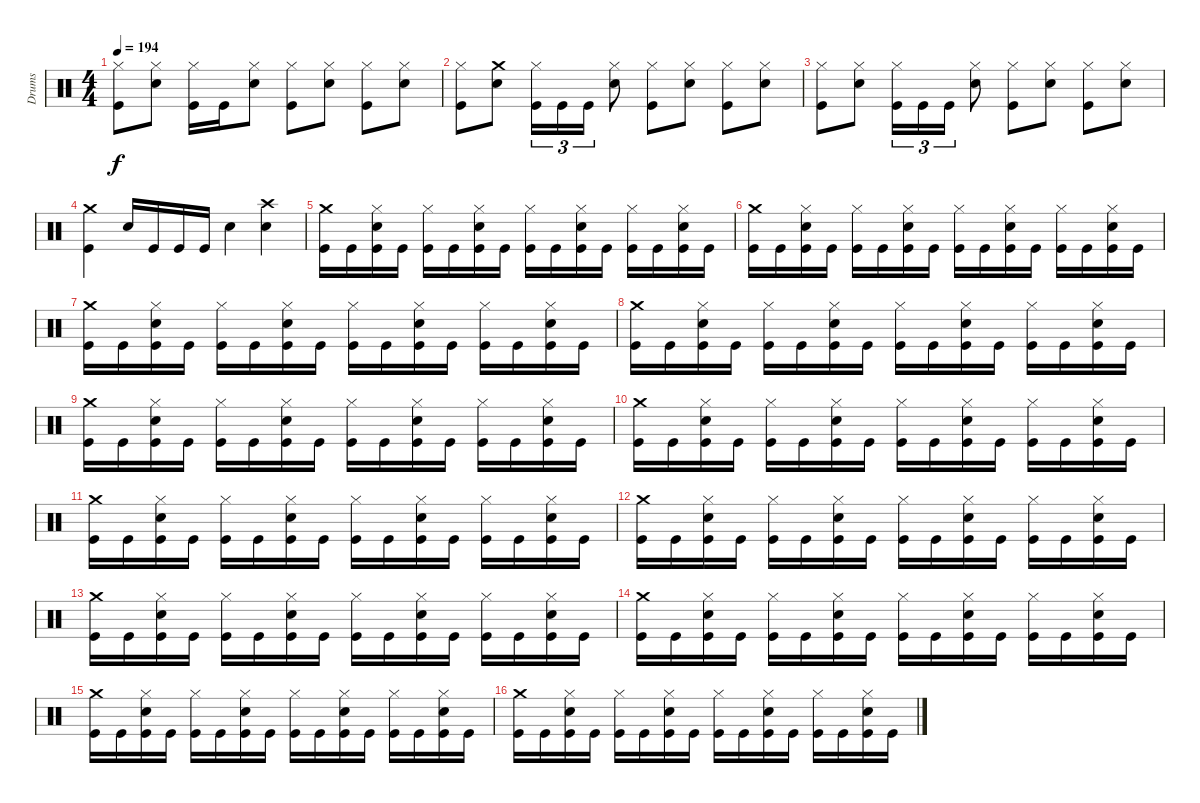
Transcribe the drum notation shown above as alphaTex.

\track ("Drums" "Drums") {instrument percussion}
\staff {score}
\articulation defaults
\ts (4 4)
\tempo 194
\clef neutral
\ks c
("Hi-Hat (closed)" "Kick (hit)").8{dy f} ("Hi-Hat (closed)" "Snare (hit) 2").8 ("Hi-Hat (closed)" "Kick (hit)").16 "Kick (hit)".16 ("Hi-Hat (closed)" "Snare (hit) 2").8 ("Hi-Hat (closed)" "Kick (hit)").8 ("Hi-Hat (closed)" "Snare (hit) 2").8 ("Hi-Hat (closed)" "Kick (hit)").8 ("Hi-Hat (closed)" "Snare (hit) 2").8 |
("Hi-Hat (closed)" "Kick (hit)").8 ("Crash medium (hit)" "Snare (hit) 2").8 ("Hi-Hat (closed)" "Kick (hit)").16{tu (3 2)} "Kick (hit)".16{tu (3 2)} "Kick (hit)".16{tu (3 2)} ("Hi-Hat (closed)" "Snare (hit) 2").8 ("Hi-Hat (closed)" "Kick (hit)").8 ("Hi-Hat (closed)" "Snare (hit) 2").8 ("Hi-Hat (closed)" "Kick (hit)").8 ("Hi-Hat (closed)" "Snare (hit) 2").8 |
("Hi-Hat (closed)" "Kick (hit)").8 ("Hi-Hat (closed)" "Snare (hit) 2").8 ("Hi-Hat (closed)" "Kick (hit)").16{tu (3 2)} "Kick (hit)".16{tu (3 2)} "Kick (hit)".16{tu (3 2)} ("Hi-Hat (closed)" "Snare (hit) 2").8 ("Hi-Hat (closed)" "Kick (hit)").8 ("Hi-Hat (closed)" "Snare (hit) 2").8 ("Hi-Hat (closed)" "Kick (hit)").8 ("Hi-Hat (closed)" "Snare (hit) 2").8 |
("Crash medium (hit)" "Kick (hit)").4 "Snare (hit) 2".16 "Kick (hit)".16 "Kick (hit)".16 "Kick (hit)".16 "Snare (hit) 2".4 ("Crash high (hit)" "Snare (hit) 2").4 |
("Crash medium (hit)" "Kick (hit)").16 "Kick (hit)".16 ("Hi-Hat (closed)" "Snare (hit) 2" "Kick (hit)").16 "Kick (hit)".16 ("Hi-Hat (closed)" "Kick (hit)").16 "Kick (hit)".16 ("Hi-Hat (closed)" "Snare (hit) 2" "Kick (hit)").16 "Kick (hit)".16 ("Hi-Hat (closed)" "Kick (hit)").16 "Kick (hit)".16 ("Hi-Hat (closed)" "Snare (hit) 2" "Kick (hit)").16 "Kick (hit)".16 ("Hi-Hat (closed)" "Kick (hit)").16 "Kick (hit)".16 ("Hi-Hat (closed)" "Snare (hit) 2" "Kick (hit)").16 "Kick (hit)".16 |
("Crash medium (hit)" "Kick (hit)").16 "Kick (hit)".16 ("Hi-Hat (closed)" "Snare (hit) 2" "Kick (hit)").16 "Kick (hit)".16 ("Hi-Hat (closed)" "Kick (hit)").16 "Kick (hit)".16 ("Hi-Hat (closed)" "Snare (hit) 2" "Kick (hit)").16 "Kick (hit)".16 ("Hi-Hat (closed)" "Kick (hit)").16 "Kick (hit)".16 ("Hi-Hat (closed)" "Snare (hit) 2" "Kick (hit)").16 "Kick (hit)".16 ("Hi-Hat (closed)" "Kick (hit)").16 "Kick (hit)".16 ("Hi-Hat (closed)" "Snare (hit) 2" "Kick (hit)").16 "Kick (hit)".16 |
("Crash medium (hit)" "Kick (hit)").16 "Kick (hit)".16 ("Hi-Hat (closed)" "Snare (hit) 2" "Kick (hit)").16 "Kick (hit)".16 ("Hi-Hat (closed)" "Kick (hit)").16 "Kick (hit)".16 ("Hi-Hat (closed)" "Snare (hit) 2" "Kick (hit)").16 "Kick (hit)".16 ("Hi-Hat (closed)" "Kick (hit)").16 "Kick (hit)".16 ("Hi-Hat (closed)" "Snare (hit) 2" "Kick (hit)").16 "Kick (hit)".16 ("Hi-Hat (closed)" "Kick (hit)").16 "Kick (hit)".16 ("Hi-Hat (closed)" "Snare (hit) 2" "Kick (hit)").16 "Kick (hit)".16 |
("Crash medium (hit)" "Kick (hit)").16 "Kick (hit)".16 ("Hi-Hat (closed)" "Snare (hit) 2" "Kick (hit)").16 "Kick (hit)".16 ("Hi-Hat (closed)" "Kick (hit)").16 "Kick (hit)".16 ("Hi-Hat (closed)" "Snare (hit) 2" "Kick (hit)").16 "Kick (hit)".16 ("Hi-Hat (closed)" "Kick (hit)").16 "Kick (hit)".16 ("Hi-Hat (closed)" "Snare (hit) 2" "Kick (hit)").16 "Kick (hit)".16 ("Hi-Hat (closed)" "Kick (hit)").16 "Kick (hit)".16 ("Hi-Hat (closed)" "Snare (hit) 2" "Kick (hit)").16 "Kick (hit)".16 |
("Crash medium (hit)" "Kick (hit)").16 "Kick (hit)".16 ("Hi-Hat (closed)" "Snare (hit) 2" "Kick (hit)").16 "Kick (hit)".16 ("Hi-Hat (closed)" "Kick (hit)").16 "Kick (hit)".16 ("Hi-Hat (closed)" "Snare (hit) 2" "Kick (hit)").16 "Kick (hit)".16 ("Hi-Hat (closed)" "Kick (hit)").16 "Kick (hit)".16 ("Hi-Hat (closed)" "Snare (hit) 2" "Kick (hit)").16 "Kick (hit)".16 ("Hi-Hat (closed)" "Kick (hit)").16 "Kick (hit)".16 ("Hi-Hat (closed)" "Snare (hit) 2" "Kick (hit)").16 "Kick (hit)".16 |
("Crash medium (hit)" "Kick (hit)").16 "Kick (hit)".16 ("Hi-Hat (closed)" "Snare (hit) 2" "Kick (hit)").16 "Kick (hit)".16 ("Hi-Hat (closed)" "Kick (hit)").16 "Kick (hit)".16 ("Hi-Hat (closed)" "Snare (hit) 2" "Kick (hit)").16 "Kick (hit)".16 ("Hi-Hat (closed)" "Kick (hit)").16 "Kick (hit)".16 ("Hi-Hat (closed)" "Snare (hit) 2" "Kick (hit)").16 "Kick (hit)".16 ("Hi-Hat (closed)" "Kick (hit)").16 "Kick (hit)".16 ("Hi-Hat (closed)" "Snare (hit) 2" "Kick (hit)").16 "Kick (hit)".16 |
("Crash medium (hit)" "Kick (hit)").16 "Kick (hit)".16 ("Hi-Hat (closed)" "Snare (hit) 2" "Kick (hit)").16 "Kick (hit)".16 ("Hi-Hat (closed)" "Kick (hit)").16 "Kick (hit)".16 ("Hi-Hat (closed)" "Snare (hit) 2" "Kick (hit)").16 "Kick (hit)".16 ("Hi-Hat (closed)" "Kick (hit)").16 "Kick (hit)".16 ("Hi-Hat (closed)" "Snare (hit) 2" "Kick (hit)").16 "Kick (hit)".16 ("Hi-Hat (closed)" "Kick (hit)").16 "Kick (hit)".16 ("Hi-Hat (closed)" "Snare (hit) 2" "Kick (hit)").16 "Kick (hit)".16 |
("Crash medium (hit)" "Kick (hit)").16 "Kick (hit)".16 ("Hi-Hat (closed)" "Snare (hit) 2" "Kick (hit)").16 "Kick (hit)".16 ("Hi-Hat (closed)" "Kick (hit)").16 "Kick (hit)".16 ("Hi-Hat (closed)" "Snare (hit) 2" "Kick (hit)").16 "Kick (hit)".16 ("Hi-Hat (closed)" "Kick (hit)").16 "Kick (hit)".16 ("Hi-Hat (closed)" "Snare (hit) 2" "Kick (hit)").16 "Kick (hit)".16 ("Hi-Hat (closed)" "Kick (hit)").16 "Kick (hit)".16 ("Hi-Hat (closed)" "Snare (hit) 2" "Kick (hit)").16 "Kick (hit)".16 |
("Crash medium (hit)" "Kick (hit)").16 "Kick (hit)".16 ("Hi-Hat (closed)" "Snare (hit) 2" "Kick (hit)").16 "Kick (hit)".16 ("Hi-Hat (closed)" "Kick (hit)").16 "Kick (hit)".16 ("Hi-Hat (closed)" "Snare (hit) 2" "Kick (hit)").16 "Kick (hit)".16 ("Hi-Hat (closed)" "Kick (hit)").16 "Kick (hit)".16 ("Hi-Hat (closed)" "Snare (hit) 2" "Kick (hit)").16 "Kick (hit)".16 ("Hi-Hat (closed)" "Kick (hit)").16 "Kick (hit)".16 ("Hi-Hat (closed)" "Snare (hit) 2" "Kick (hit)").16 "Kick (hit)".16 |
("Crash medium (hit)" "Kick (hit)").16 "Kick (hit)".16 ("Hi-Hat (closed)" "Snare (hit) 2" "Kick (hit)").16 "Kick (hit)".16 ("Hi-Hat (closed)" "Kick (hit)").16 "Kick (hit)".16 ("Hi-Hat (closed)" "Snare (hit) 2" "Kick (hit)").16 "Kick (hit)".16 ("Hi-Hat (closed)" "Kick (hit)").16 "Kick (hit)".16 ("Hi-Hat (closed)" "Snare (hit) 2" "Kick (hit)").16 "Kick (hit)".16 ("Hi-Hat (closed)" "Kick (hit)").16 "Kick (hit)".16 ("Hi-Hat (closed)" "Snare (hit) 2" "Kick (hit)").16 "Kick (hit)".16 |
("Crash medium (hit)" "Kick (hit)").16 "Kick (hit)".16 ("Hi-Hat (closed)" "Snare (hit) 2" "Kick (hit)").16 "Kick (hit)".16 ("Hi-Hat (closed)" "Kick (hit)").16 "Kick (hit)".16 ("Hi-Hat (closed)" "Snare (hit) 2" "Kick (hit)").16 "Kick (hit)".16 ("Hi-Hat (closed)" "Kick (hit)").16 "Kick (hit)".16 ("Hi-Hat (closed)" "Snare (hit) 2" "Kick (hit)").16 "Kick (hit)".16 ("Hi-Hat (closed)" "Kick (hit)").16 "Kick (hit)".16 ("Hi-Hat (closed)" "Snare (hit) 2" "Kick (hit)").16 "Kick (hit)".16 |
("Crash medium (hit)" "Kick (hit)").16 "Kick (hit)".16 ("Hi-Hat (closed)" "Snare (hit) 2" "Kick (hit)").16 "Kick (hit)".16 ("Hi-Hat (closed)" "Kick (hit)").16 "Kick (hit)".16 ("Hi-Hat (closed)" "Snare (hit) 2" "Kick (hit)").16 "Kick (hit)".16 ("Hi-Hat (closed)" "Kick (hit)").16 "Kick (hit)".16 ("Hi-Hat (closed)" "Snare (hit) 2" "Kick (hit)").16 "Kick (hit)".16 ("Hi-Hat (closed)" "Kick (hit)").16 "Kick (hit)".16 ("Hi-Hat (closed)" "Snare (hit) 2" "Kick (hit)").16 "Kick (hit)".16
